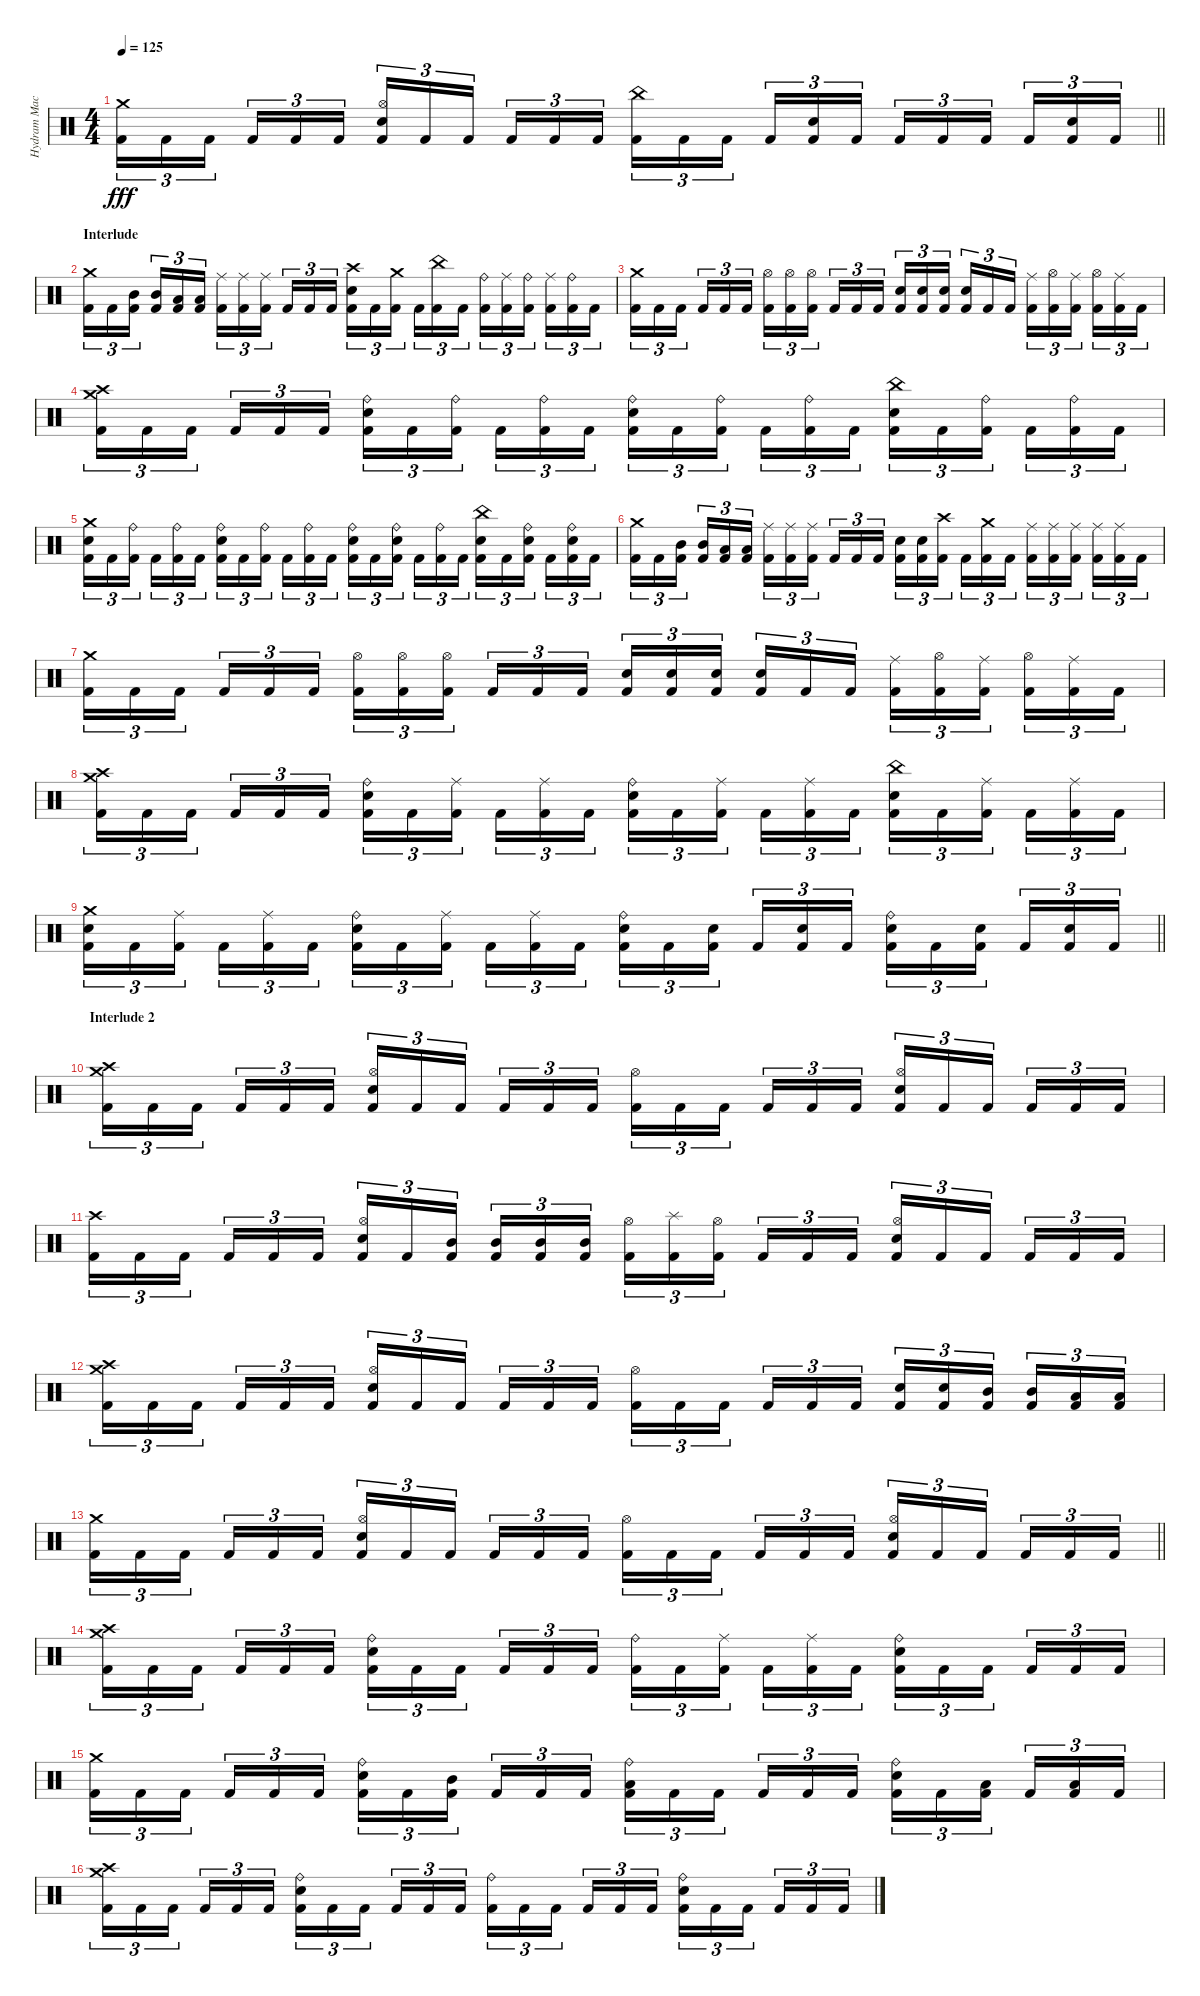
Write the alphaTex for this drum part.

\track ("Hydram Machine" "Hydram Mac") {instrument percussion}
\staff {score}
\articulation defaults
\ts (4 4)
\tempo 125
\clef neutral
\barLineRight lightlight
\ks c
("Crash medium (hit)" "Kick (hit) 2").16{tu (3 2) dy fff} "Kick (hit) 2".16{tu (3 2)} "Kick (hit) 2".16{tu (3 2) beam splitsecondary} "Kick (hit) 2".16{tu (3 2)} "Kick (hit) 2".16{tu (3 2)} "Kick (hit) 2".16{tu (3 2)} ("Hi-Hat (open)" "Electric Snare (hit)" "Kick (hit) 2").16{tu (3 2)} "Kick (hit) 2".16{tu (3 2)} "Kick (hit) 2".16{tu (3 2) beam splitsecondary} "Kick (hit) 2".16{tu (3 2)} "Kick (hit) 2".16{tu (3 2)} "Kick (hit) 2".16{tu (3 2)} ("China (hit)" "Kick (hit) 2").16{tu (3 2)} "Kick (hit) 2".16{tu (3 2)} "Kick (hit) 2".16{tu (3 2) beam splitsecondary} "Kick (hit) 2".16{tu (3 2)} ("Electric Snare (hit)" "Kick (hit) 2").16{tu (3 2)} "Kick (hit) 2".16{tu (3 2)} "Kick (hit) 2".16{tu (3 2)} "Kick (hit) 2".16{tu (3 2)} "Kick (hit) 2".16{tu (3 2) beam splitsecondary} "Kick (hit) 2".16{tu (3 2)} ("Electric Snare (hit)" "Kick (hit) 2").16{tu (3 2)} "Kick (hit) 2".16{tu (3 2)} |
\section ("" "Interlude")
("Crash medium (hit)" "Kick (hit) 2").16{tu (3 2)} "Kick (hit) 2".16{tu (3 2)} ("Mid Tom (hit)" "Kick (hit) 2").16{tu (3 2) beam splitsecondary} ("Mid Tom (hit)" "Kick (hit) 2").16{tu (3 2)} ("Low Tom (hit)" "Kick (hit) 2").16{tu (3 2)} ("Low Tom (hit)" "Kick (hit) 2").16{tu (3 2)} ("Ride (middle)" "Kick (hit) 2").16{tu (3 2)} ("Ride (middle)" "Kick (hit) 2").16{tu (3 2)} ("Ride (middle)" "Kick (hit) 2").16{tu (3 2) beam splitsecondary} "Kick (hit) 2".16{tu (3 2)} "Kick (hit) 2".16{tu (3 2)} "Kick (hit) 2".16{tu (3 2)} ("Crash high (hit)" "Electric Snare (hit)" "Kick (hit) 2").16{tu (3 2)} "Kick (hit) 2".16{tu (3 2)} ("Crash medium (hit)" "Kick (hit) 2").16{tu (3 2) beam splitsecondary} "Kick (hit) 2".16{tu (3 2)} ("China (hit)" "Kick (hit) 2").16{tu (3 2)} "Kick (hit) 2".16{tu (3 2)} ("Ride (bell)" "Kick (hit) 2").16{tu (3 2)} ("Ride (middle)" "Kick (hit) 2").16{tu (3 2)} ("Ride (bell)" "Kick (hit) 2").16{tu (3 2) beam splitsecondary} ("Ride (middle)" "Kick (hit) 2").16{tu (3 2)} ("Ride (bell)" "Kick (hit) 2").16{tu (3 2)} "Kick (hit) 2".16{tu (3 2)} |
("Crash medium (hit)" "Kick (hit) 2").16{tu (3 2)} "Kick (hit) 2".16{tu (3 2)} "Kick (hit) 2".16{tu (3 2) beam splitsecondary} "Kick (hit) 2".16{tu (3 2)} "Kick (hit) 2".16{tu (3 2)} "Kick (hit) 2".16{tu (3 2)} ("Hi-Hat (open)" "Kick (hit) 2").16{tu (3 2)} ("Hi-Hat (open)" "Kick (hit) 2").16{tu (3 2)} ("Hi-Hat (open)" "Kick (hit) 2").16{tu (3 2) beam splitsecondary} "Kick (hit) 2".16{tu (3 2)} "Kick (hit) 2".16{tu (3 2)} "Kick (hit) 2".16{tu (3 2)} ("Electric Snare (hit)" "Kick (hit) 2").16{tu (3 2)} ("Electric Snare (hit)" "Kick (hit) 2").16{tu (3 2)} ("Electric Snare (hit)" "Kick (hit) 2").16{tu (3 2) beam splitsecondary} ("Electric Snare (hit)" "Kick (hit) 2").16{tu (3 2)} "Kick (hit) 2".16{tu (3 2)} "Kick (hit) 2".16{tu (3 2)} ("Ride (middle)" "Kick (hit) 2").16{tu (3 2)} ("Hi-Hat (open)" "Kick (hit) 2").16{tu (3 2)} ("Ride (middle)" "Kick (hit) 2").16{tu (3 2) beam splitsecondary} ("Hi-Hat (open)" "Kick (hit) 2").16{tu (3 2)} ("Ride (middle)" "Kick (hit) 2").16{tu (3 2)} "Kick (hit) 2".16{tu (3 2)} |
("Crash medium (hit)" "Crash high (hit)" "Kick (hit) 2").16{tu (3 2)} "Kick (hit) 2".16{tu (3 2)} "Kick (hit) 2".16{tu (3 2) beam splitsecondary} "Kick (hit) 2".16{tu (3 2)} "Kick (hit) 2".16{tu (3 2)} "Kick (hit) 2".16{tu (3 2)} ("Ride (bell)" "Electric Snare (hit)" "Kick (hit) 2").16{tu (3 2)} "Kick (hit) 2".16{tu (3 2)} ("Ride (bell)" "Kick (hit) 2").16{tu (3 2) beam splitsecondary} "Kick (hit) 2".16{tu (3 2)} ("Ride (bell)" "Kick (hit) 2").16{tu (3 2)} "Kick (hit) 2".16{tu (3 2)} ("Ride (bell)" "Electric Snare (hit)" "Kick (hit) 2").16{tu (3 2)} "Kick (hit) 2".16{tu (3 2)} ("Ride (bell)" "Kick (hit) 2").16{tu (3 2) beam splitsecondary} "Kick (hit) 2".16{tu (3 2)} ("Ride (bell)" "Kick (hit) 2").16{tu (3 2)} "Kick (hit) 2".16{tu (3 2)} ("China (hit)" "Electric Snare (hit)" "Kick (hit) 2").16{tu (3 2)} "Kick (hit) 2".16{tu (3 2)} ("Ride (bell)" "Kick (hit) 2").16{tu (3 2) beam splitsecondary} "Kick (hit) 2".16{tu (3 2)} ("Ride (bell)" "Kick (hit) 2").16{tu (3 2)} "Kick (hit) 2".16{tu (3 2)} |
("Crash medium (hit)" "Electric Snare (hit)" "Kick (hit) 2").16{tu (3 2)} "Kick (hit) 2".16{tu (3 2)} ("Ride (bell)" "Kick (hit) 2").16{tu (3 2) beam splitsecondary} "Kick (hit) 2".16{tu (3 2)} ("Ride (bell)" "Kick (hit) 2").16{tu (3 2)} "Kick (hit) 2".16{tu (3 2)} ("Ride (bell)" "Electric Snare (hit)" "Kick (hit) 2").16{tu (3 2)} "Kick (hit) 2".16{tu (3 2)} ("Ride (bell)" "Kick (hit) 2").16{tu (3 2) beam splitsecondary} "Kick (hit) 2".16{tu (3 2)} ("Ride (bell)" "Kick (hit) 2").16{tu (3 2)} "Kick (hit) 2".16{tu (3 2)} ("Ride (bell)" "Electric Snare (hit)" "Kick (hit) 2").16{tu (3 2)} "Kick (hit) 2".16{tu (3 2)} ("Ride (bell)" "Electric Snare (hit)" "Kick (hit) 2").16{tu (3 2) beam splitsecondary} "Kick (hit) 2".16{tu (3 2)} ("Ride (bell)" "Kick (hit) 2").16{tu (3 2)} "Kick (hit) 2".16{tu (3 2)} ("China (hit)" "Electric Snare (hit)" "Kick (hit) 2").16{tu (3 2)} "Kick (hit) 2".16{tu (3 2)} ("Ride (bell)" "Electric Snare (hit)" "Kick (hit) 2").16{tu (3 2) beam splitsecondary} "Kick (hit) 2".16{tu (3 2)} ("Ride (bell)" "Electric Snare (hit)" "Kick (hit) 2").16{tu (3 2)} "Kick (hit) 2".16{tu (3 2)} |
("Crash medium (hit)" "Kick (hit) 2").16{tu (3 2)} "Kick (hit) 2".16{tu (3 2)} ("Mid Tom (hit)" "Kick (hit) 2").16{tu (3 2) beam splitsecondary} ("Mid Tom (hit)" "Kick (hit) 2").16{tu (3 2)} ("Low Tom (hit)" "Kick (hit) 2").16{tu (3 2)} ("Low Tom (hit)" "Kick (hit) 2").16{tu (3 2)} ("Ride (middle)" "Kick (hit) 2").16{tu (3 2)} ("Ride (middle)" "Kick (hit) 2").16{tu (3 2)} ("Ride (middle)" "Kick (hit) 2").16{tu (3 2) beam splitsecondary} "Kick (hit) 2".16{tu (3 2)} "Kick (hit) 2".16{tu (3 2)} "Kick (hit) 2".16{tu (3 2)} ("Electric Snare (hit)" "Kick (hit) 2").16{tu (3 2)} ("Electric Snare (hit)" "Kick (hit) 2").16{tu (3 2)} ("Crash high (hit)" "Kick (hit) 2").16{tu (3 2) beam splitsecondary} "Kick (hit) 2".16{tu (3 2)} ("Crash medium (hit)" "Kick (hit) 2").16{tu (3 2)} "Kick (hit) 2".16{tu (3 2)} ("Ride (middle)" "Kick (hit) 2").16{tu (3 2)} ("Ride (middle)" "Kick (hit) 2").16{tu (3 2)} ("Ride (middle)" "Kick (hit) 2").16{tu (3 2) beam splitsecondary} ("Ride (middle)" "Kick (hit) 2").16{tu (3 2)} ("Ride (middle)" "Kick (hit) 2").16{tu (3 2)} "Kick (hit) 2".16{tu (3 2)} |
("Crash medium (hit)" "Kick (hit) 2").16{tu (3 2)} "Kick (hit) 2".16{tu (3 2)} "Kick (hit) 2".16{tu (3 2) beam splitsecondary} "Kick (hit) 2".16{tu (3 2)} "Kick (hit) 2".16{tu (3 2)} "Kick (hit) 2".16{tu (3 2)} ("Hi-Hat (open)" "Kick (hit) 2").16{tu (3 2)} ("Hi-Hat (open)" "Kick (hit) 2").16{tu (3 2)} ("Hi-Hat (open)" "Kick (hit) 2").16{tu (3 2) beam splitsecondary} "Kick (hit) 2".16{tu (3 2)} "Kick (hit) 2".16{tu (3 2)} "Kick (hit) 2".16{tu (3 2)} ("Electric Snare (hit)" "Kick (hit) 2").16{tu (3 2)} ("Electric Snare (hit)" "Kick (hit) 2").16{tu (3 2)} ("Electric Snare (hit)" "Kick (hit) 2").16{tu (3 2) beam splitsecondary} ("Electric Snare (hit)" "Kick (hit) 2").16{tu (3 2)} "Kick (hit) 2".16{tu (3 2)} "Kick (hit) 2".16{tu (3 2)} ("Ride (middle)" "Kick (hit) 2").16{tu (3 2)} ("Hi-Hat (open)" "Kick (hit) 2").16{tu (3 2)} ("Ride (middle)" "Kick (hit) 2").16{tu (3 2) beam splitsecondary} ("Hi-Hat (open)" "Kick (hit) 2").16{tu (3 2)} ("Ride (middle)" "Kick (hit) 2").16{tu (3 2)} "Kick (hit) 2".16{tu (3 2)} |
("Crash medium (hit)" "Crash high (hit)" "Kick (hit) 2").16{tu (3 2)} "Kick (hit) 2".16{tu (3 2)} "Kick (hit) 2".16{tu (3 2) beam splitsecondary} "Kick (hit) 2".16{tu (3 2)} "Kick (hit) 2".16{tu (3 2)} "Kick (hit) 2".16{tu (3 2)} ("Ride (bell)" "Electric Snare (hit)" "Kick (hit) 2").16{tu (3 2)} "Kick (hit) 2".16{tu (3 2)} ("Ride (middle)" "Kick (hit) 2").16{tu (3 2) beam splitsecondary} "Kick (hit) 2".16{tu (3 2)} ("Ride (middle)" "Kick (hit) 2").16{tu (3 2)} "Kick (hit) 2".16{tu (3 2)} ("Ride (bell)" "Electric Snare (hit)" "Kick (hit) 2").16{tu (3 2)} "Kick (hit) 2".16{tu (3 2)} ("Ride (middle)" "Kick (hit) 2").16{tu (3 2) beam splitsecondary} "Kick (hit) 2".16{tu (3 2)} ("Ride (middle)" "Kick (hit) 2").16{tu (3 2)} "Kick (hit) 2".16{tu (3 2)} ("China (hit)" "Electric Snare (hit)" "Kick (hit) 2").16{tu (3 2)} "Kick (hit) 2".16{tu (3 2)} ("Ride (middle)" "Kick (hit) 2").16{tu (3 2) beam splitsecondary} "Kick (hit) 2".16{tu (3 2)} ("Ride (middle)" "Kick (hit) 2").16{tu (3 2)} "Kick (hit) 2".16{tu (3 2)} |
\barLineRight lightlight
("Crash medium (hit)" "Electric Snare (hit)" "Kick (hit) 2").16{tu (3 2)} "Kick (hit) 2".16{tu (3 2)} ("Ride (middle)" "Kick (hit) 2").16{tu (3 2) beam splitsecondary} "Kick (hit) 2".16{tu (3 2)} ("Ride (middle)" "Kick (hit) 2").16{tu (3 2)} "Kick (hit) 2".16{tu (3 2)} ("Ride (bell)" "Electric Snare (hit)" "Kick (hit) 2").16{tu (3 2)} "Kick (hit) 2".16{tu (3 2)} ("Ride (middle)" "Kick (hit) 2").16{tu (3 2) beam splitsecondary} "Kick (hit) 2".16{tu (3 2)} ("Ride (middle)" "Kick (hit) 2").16{tu (3 2)} "Kick (hit) 2".16{tu (3 2)} ("Ride (bell)" "Electric Snare (hit)" "Kick (hit) 2").16{tu (3 2)} "Kick (hit) 2".16{tu (3 2)} ("Electric Snare (hit)" "Kick (hit) 2").16{tu (3 2) beam splitsecondary} "Kick (hit) 2".16{tu (3 2)} ("Electric Snare (hit)" "Kick (hit) 2").16{tu (3 2)} "Kick (hit) 2".16{tu (3 2)} ("Ride (bell)" "Electric Snare (hit)" "Kick (hit) 2").16{tu (3 2)} "Kick (hit) 2".16{tu (3 2)} ("Electric Snare (hit)" "Kick (hit) 2").16{tu (3 2) beam splitsecondary} "Kick (hit) 2".16{tu (3 2)} ("Electric Snare (hit)" "Kick (hit) 2").16{tu (3 2)} "Kick (hit) 2".16{tu (3 2)} |
\section ("" "Interlude 2")
("Crash medium (hit)" "Crash high (hit)" "Kick (hit) 2").16{tu (3 2)} "Kick (hit) 2".16{tu (3 2)} "Kick (hit) 2".16{tu (3 2) beam splitsecondary} "Kick (hit) 2".16{tu (3 2)} "Kick (hit) 2".16{tu (3 2)} "Kick (hit) 2".16{tu (3 2)} ("Hi-Hat (open)" "Electric Snare (hit)" "Kick (hit) 2").16{tu (3 2)} "Kick (hit) 2".16{tu (3 2)} "Kick (hit) 2".16{tu (3 2) beam splitsecondary} "Kick (hit) 2".16{tu (3 2)} "Kick (hit) 2".16{tu (3 2)} "Kick (hit) 2".16{tu (3 2)} ("Hi-Hat (open)" "Kick (hit) 2").16{tu (3 2)} "Kick (hit) 2".16{tu (3 2)} "Kick (hit) 2".16{tu (3 2) beam splitsecondary} "Kick (hit) 2".16{tu (3 2)} "Kick (hit) 2".16{tu (3 2)} "Kick (hit) 2".16{tu (3 2)} ("Hi-Hat (open)" "Electric Snare (hit)" "Kick (hit) 2").16{tu (3 2)} "Kick (hit) 2".16{tu (3 2)} "Kick (hit) 2".16{tu (3 2) beam splitsecondary} "Kick (hit) 2".16{tu (3 2)} "Kick (hit) 2".16{tu (3 2)} "Kick (hit) 2".16{tu (3 2)} |
("Crash high (hit)" "Kick (hit) 2").16{tu (3 2)} "Kick (hit) 2".16{tu (3 2)} "Kick (hit) 2".16{tu (3 2) beam splitsecondary} "Kick (hit) 2".16{tu (3 2)} "Kick (hit) 2".16{tu (3 2)} "Kick (hit) 2".16{tu (3 2)} ("Hi-Hat (open)" "Electric Snare (hit)" "Kick (hit) 2").16{tu (3 2)} "Kick (hit) 2".16{tu (3 2)} ("Mid Tom (hit)" "Kick (hit) 2").16{tu (3 2) beam splitsecondary} ("Mid Tom (hit)" "Kick (hit) 2").16{tu (3 2)} ("Mid Tom (hit)" "Kick (hit) 2").16{tu (3 2)} ("Mid Tom (hit)" "Kick (hit) 2").16{tu (3 2)} ("Hi-Hat (open)" "Kick (hit) 2").16{tu (3 2)} ("Splash (hit)" "Kick (hit) 2").16{tu (3 2)} ("Hi-Hat (open)" "Kick (hit) 2").16{tu (3 2) beam splitsecondary} "Kick (hit) 2".16{tu (3 2)} "Kick (hit) 2".16{tu (3 2)} "Kick (hit) 2".16{tu (3 2)} ("Hi-Hat (open)" "Electric Snare (hit)" "Kick (hit) 2").16{tu (3 2)} "Kick (hit) 2".16{tu (3 2)} "Kick (hit) 2".16{tu (3 2) beam splitsecondary} "Kick (hit) 2".16{tu (3 2)} "Kick (hit) 2".16{tu (3 2)} "Kick (hit) 2".16{tu (3 2)} |
("Crash medium (hit)" "Crash high (hit)" "Kick (hit) 2").16{tu (3 2)} "Kick (hit) 2".16{tu (3 2)} "Kick (hit) 2".16{tu (3 2) beam splitsecondary} "Kick (hit) 2".16{tu (3 2)} "Kick (hit) 2".16{tu (3 2)} "Kick (hit) 2".16{tu (3 2)} ("Hi-Hat (open)" "Electric Snare (hit)" "Kick (hit) 2").16{tu (3 2)} "Kick (hit) 2".16{tu (3 2)} "Kick (hit) 2".16{tu (3 2) beam splitsecondary} "Kick (hit) 2".16{tu (3 2)} "Kick (hit) 2".16{tu (3 2)} "Kick (hit) 2".16{tu (3 2)} ("Hi-Hat (open)" "Kick (hit) 2").16{tu (3 2)} "Kick (hit) 2".16{tu (3 2)} "Kick (hit) 2".16{tu (3 2) beam splitsecondary} "Kick (hit) 2".16{tu (3 2)} "Kick (hit) 2".16{tu (3 2)} "Kick (hit) 2".16{tu (3 2)} ("Electric Snare (hit)" "Kick (hit) 2").16{tu (3 2)} ("Electric Snare (hit)" "Kick (hit) 2").16{tu (3 2)} ("Mid Tom (hit)" "Kick (hit) 2").16{tu (3 2) beam splitsecondary} ("Mid Tom (hit)" "Kick (hit) 2").16{tu (3 2)} ("Low Tom (hit)" "Kick (hit) 2").16{tu (3 2)} ("Low Tom (hit)" "Kick (hit) 2").16{tu (3 2)} |
\barLineRight lightlight
("Crash medium (hit)" "Kick (hit) 2").16{tu (3 2)} "Kick (hit) 2".16{tu (3 2)} "Kick (hit) 2".16{tu (3 2) beam splitsecondary} "Kick (hit) 2".16{tu (3 2)} "Kick (hit) 2".16{tu (3 2)} "Kick (hit) 2".16{tu (3 2)} ("Hi-Hat (open)" "Electric Snare (hit)" "Kick (hit) 2").16{tu (3 2)} "Kick (hit) 2".16{tu (3 2)} "Kick (hit) 2".16{tu (3 2) beam splitsecondary} "Kick (hit) 2".16{tu (3 2)} "Kick (hit) 2".16{tu (3 2)} "Kick (hit) 2".16{tu (3 2)} ("Hi-Hat (open)" "Kick (hit) 2").16{tu (3 2)} "Kick (hit) 2".16{tu (3 2)} "Kick (hit) 2".16{tu (3 2) beam splitsecondary} "Kick (hit) 2".16{tu (3 2)} "Kick (hit) 2".16{tu (3 2)} "Kick (hit) 2".16{tu (3 2)} ("Hi-Hat (open)" "Electric Snare (hit)" "Kick (hit) 2").16{tu (3 2)} "Kick (hit) 2".16{tu (3 2)} "Kick (hit) 2".16{tu (3 2) beam splitsecondary} "Kick (hit) 2".16{tu (3 2)} "Kick (hit) 2".16{tu (3 2)} "Kick (hit) 2".16{tu (3 2)} |
("Crash medium (hit)" "Crash high (hit)" "Kick (hit) 2").16{tu (3 2)} "Kick (hit) 2".16{tu (3 2)} "Kick (hit) 2".16{tu (3 2) beam splitsecondary} "Kick (hit) 2".16{tu (3 2)} "Kick (hit) 2".16{tu (3 2)} "Kick (hit) 2".16{tu (3 2)} ("Ride (bell)" "Electric Snare (hit)" "Kick (hit) 2").16{tu (3 2)} "Kick (hit) 2".16{tu (3 2)} "Kick (hit) 2".16{tu (3 2) beam splitsecondary} "Kick (hit) 2".16{tu (3 2)} "Kick (hit) 2".16{tu (3 2)} "Kick (hit) 2".16{tu (3 2)} ("Ride (bell)" "Kick (hit) 2").16{tu (3 2)} "Kick (hit) 2".16{tu (3 2)} ("Ride (middle)" "Kick (hit) 2").16{tu (3 2) beam splitsecondary} "Kick (hit) 2".16{tu (3 2)} ("Ride (middle)" "Kick (hit) 2").16{tu (3 2)} "Kick (hit) 2".16{tu (3 2)} ("Ride (bell)" "Electric Snare (hit)" "Kick (hit) 2").16{tu (3 2)} "Kick (hit) 2".16{tu (3 2)} "Kick (hit) 2".16{tu (3 2) beam splitsecondary} "Kick (hit) 2".16{tu (3 2)} "Kick (hit) 2".16{tu (3 2)} "Kick (hit) 2".16{tu (3 2)} |
("Crash medium (hit)" "Kick (hit) 2").16{tu (3 2)} "Kick (hit) 2".16{tu (3 2)} "Kick (hit) 2".16{tu (3 2) beam splitsecondary} "Kick (hit) 2".16{tu (3 2)} "Kick (hit) 2".16{tu (3 2)} "Kick (hit) 2".16{tu (3 2)} ("Ride (bell)" "Electric Snare (hit)" "Kick (hit) 2").16{tu (3 2)} "Kick (hit) 2".16{tu (3 2)} ("Mid Tom (hit)" "Kick (hit) 2").16{tu (3 2) beam splitsecondary} "Kick (hit) 2".16{tu (3 2)} "Kick (hit) 2".16{tu (3 2)} "Kick (hit) 2".16{tu (3 2)} ("Ride (bell)" "Low Tom (hit)" "Kick (hit) 2").16{tu (3 2)} "Kick (hit) 2".16{tu (3 2)} "Kick (hit) 2".16{tu (3 2) beam splitsecondary} "Kick (hit) 2".16{tu (3 2)} "Kick (hit) 2".16{tu (3 2)} "Kick (hit) 2".16{tu (3 2)} ("Ride (bell)" "Electric Snare (hit)" "Kick (hit) 2").16{tu (3 2)} "Kick (hit) 2".16{tu (3 2)} ("Low Tom (hit)" "Kick (hit) 2").16{tu (3 2) beam splitsecondary} "Kick (hit) 2".16{tu (3 2)} ("Low Tom (hit)" "Kick (hit) 2").16{tu (3 2)} "Kick (hit) 2".16{tu (3 2)} |
("Crash medium (hit)" "Crash high (hit)" "Kick (hit) 2").16{tu (3 2)} "Kick (hit) 2".16{tu (3 2)} "Kick (hit) 2".16{tu (3 2) beam splitsecondary} "Kick (hit) 2".16{tu (3 2)} "Kick (hit) 2".16{tu (3 2)} "Kick (hit) 2".16{tu (3 2)} ("Ride (bell)" "Electric Snare (hit)" "Kick (hit) 2").16{tu (3 2)} "Kick (hit) 2".16{tu (3 2)} "Kick (hit) 2".16{tu (3 2) beam splitsecondary} "Kick (hit) 2".16{tu (3 2)} "Kick (hit) 2".16{tu (3 2)} "Kick (hit) 2".16{tu (3 2)} ("Ride (bell)" "Kick (hit) 2").16{tu (3 2)} "Kick (hit) 2".16{tu (3 2)} "Kick (hit) 2".16{tu (3 2) beam splitsecondary} "Kick (hit) 2".16{tu (3 2)} "Kick (hit) 2".16{tu (3 2)} "Kick (hit) 2".16{tu (3 2)} ("Ride (bell)" "Electric Snare (hit)" "Kick (hit) 2").16{tu (3 2)} "Kick (hit) 2".16{tu (3 2)} "Kick (hit) 2".16{tu (3 2) beam splitsecondary} "Kick (hit) 2".16{tu (3 2)} "Kick (hit) 2".16{tu (3 2)} "Kick (hit) 2".16{tu (3 2)}
